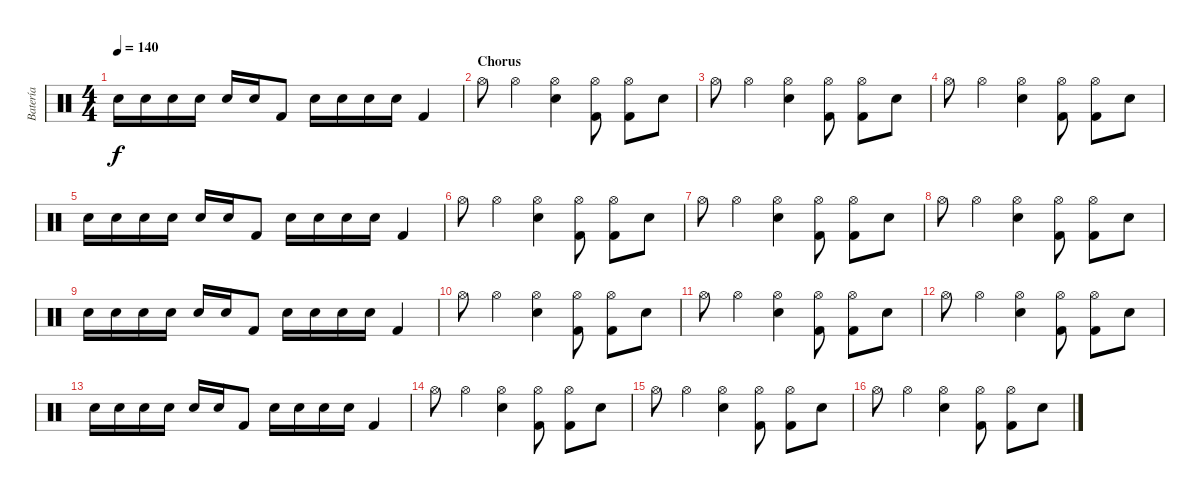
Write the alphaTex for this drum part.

\track ("Batería" "Batería") {instrument percussion}
\staff {score}
\articulation defaults
\ts (4 4)
\tempo 140
\clef neutral
\ks c "Snare (hit) 2".16{dy f} "Snare (hit) 2".16 "Snare (hit) 2".16 "Snare (hit) 2".16 "Snare (hit) 2".16 "Snare (hit) 2".16 "Kick (hit) 2".8 "Snare (hit) 2".16 "Snare (hit) 2".16 "Snare (hit) 2".16 "Snare (hit) 2".16 "Kick (hit) 2".4
|
\section ("" "Chorus")
"Hi-Hat (open)".8 "Hi-Hat (open)".4 ("Hi-Hat (open)" "Snare (hit) 2").4 ("Hi-Hat (open)" "Kick (hit) 2").8 ("Hi-Hat (open)" "Kick (hit) 2").8 "Snare (hit) 2".8 |
"Hi-Hat (open)".8 "Hi-Hat (open)".4 ("Hi-Hat (open)" "Snare (hit) 2").4 ("Hi-Hat (open)" "Kick (hit) 2").8 ("Hi-Hat (open)" "Kick (hit) 2").8 "Snare (hit) 2".8 |
"Hi-Hat (open)".8 "Hi-Hat (open)".4 ("Hi-Hat (open)" "Snare (hit) 2").4 ("Hi-Hat (open)" "Kick (hit) 2").8 ("Hi-Hat (open)" "Kick (hit) 2").8 "Snare (hit) 2".8 |
"Snare (hit) 2".16 "Snare (hit) 2".16 "Snare (hit) 2".16 "Snare (hit) 2".16 "Snare (hit) 2".16 "Snare (hit) 2".16 "Kick (hit) 2".8 "Snare (hit) 2".16 "Snare (hit) 2".16 "Snare (hit) 2".16 "Snare (hit) 2".16 "Kick (hit) 2".4 |
"Hi-Hat (open)".8 "Hi-Hat (open)".4 ("Hi-Hat (open)" "Snare (hit) 2").4 ("Hi-Hat (open)" "Kick (hit) 2").8 ("Hi-Hat (open)" "Kick (hit) 2").8 "Snare (hit) 2".8 |
"Hi-Hat (open)".8 "Hi-Hat (open)".4 ("Hi-Hat (open)" "Snare (hit) 2").4 ("Hi-Hat (open)" "Kick (hit) 2").8 ("Hi-Hat (open)" "Kick (hit) 2").8 "Snare (hit) 2".8 |
"Hi-Hat (open)".8 "Hi-Hat (open)".4 ("Hi-Hat (open)" "Snare (hit) 2").4 ("Hi-Hat (open)" "Kick (hit) 2").8 ("Hi-Hat (open)" "Kick (hit) 2").8 "Snare (hit) 2".8 |
"Snare (hit) 2".16 "Snare (hit) 2".16 "Snare (hit) 2".16 "Snare (hit) 2".16 "Snare (hit) 2".16 "Snare (hit) 2".16 "Kick (hit) 2".8 "Snare (hit) 2".16 "Snare (hit) 2".16 "Snare (hit) 2".16 "Snare (hit) 2".16 "Kick (hit) 2".4 |
"Hi-Hat (open)".8 "Hi-Hat (open)".4 ("Hi-Hat (open)" "Snare (hit) 2").4 ("Hi-Hat (open)" "Kick (hit) 2").8 ("Hi-Hat (open)" "Kick (hit) 2").8 "Snare (hit) 2".8 |
"Hi-Hat (open)".8 "Hi-Hat (open)".4 ("Hi-Hat (open)" "Snare (hit) 2").4 ("Hi-Hat (open)" "Kick (hit) 2").8 ("Hi-Hat (open)" "Kick (hit) 2").8 "Snare (hit) 2".8 |
"Hi-Hat (open)".8 "Hi-Hat (open)".4 ("Hi-Hat (open)" "Snare (hit) 2").4 ("Hi-Hat (open)" "Kick (hit) 2").8 ("Hi-Hat (open)" "Kick (hit) 2").8 "Snare (hit) 2".8 |
"Snare (hit) 2".16 "Snare (hit) 2".16 "Snare (hit) 2".16 "Snare (hit) 2".16 "Snare (hit) 2".16 "Snare (hit) 2".16 "Kick (hit) 2".8 "Snare (hit) 2".16 "Snare (hit) 2".16 "Snare (hit) 2".16 "Snare (hit) 2".16 "Kick (hit) 2".4 |
"Hi-Hat (open)".8 "Hi-Hat (open)".4 ("Hi-Hat (open)" "Snare (hit) 2").4 ("Hi-Hat (open)" "Kick (hit) 2").8 ("Hi-Hat (open)" "Kick (hit) 2").8 "Snare (hit) 2".8 |
"Hi-Hat (open)".8 "Hi-Hat (open)".4 ("Hi-Hat (open)" "Snare (hit) 2").4 ("Hi-Hat (open)" "Kick (hit) 2").8 ("Hi-Hat (open)" "Kick (hit) 2").8 "Snare (hit) 2".8 |
"Hi-Hat (open)".8 "Hi-Hat (open)".4 ("Hi-Hat (open)" "Snare (hit) 2").4 ("Hi-Hat (open)" "Kick (hit) 2").8 ("Hi-Hat (open)" "Kick (hit) 2").8 "Snare (hit) 2".8
